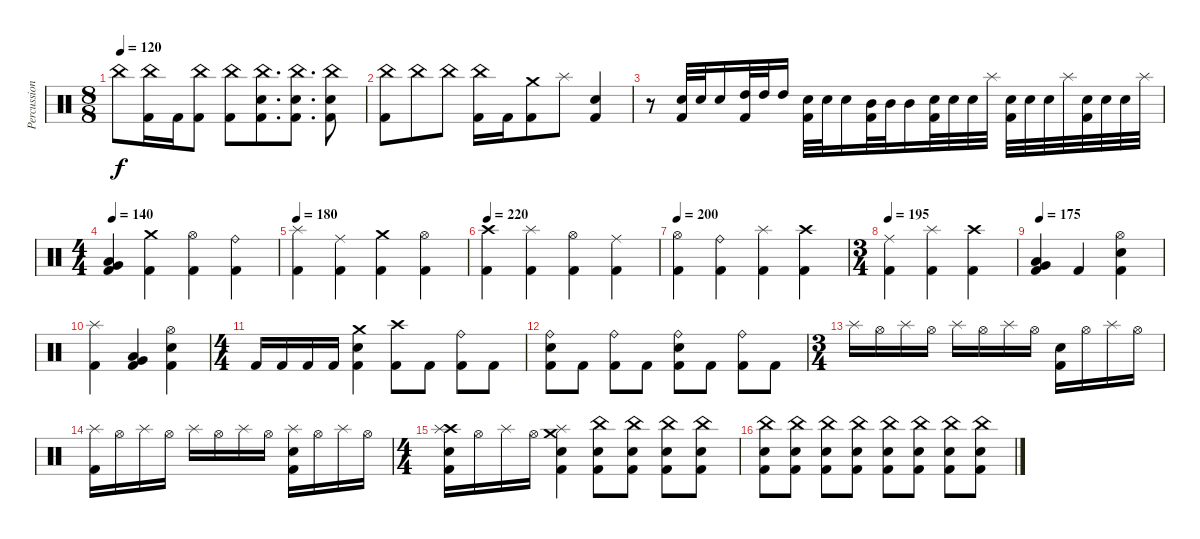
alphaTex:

\track ("Percussions" "Percussion") {instrument percussion}
\staff {score}
\articulation defaults
\ts (8 8)
\tempo 120
\clef neutral
\ks c "China (hit)".8{dy f}
("China (hit)" "Kick (hit) 2").16 "Kick (hit) 2".16 ("China (hit)" "Kick (hit) 2").8 ("China (hit)" "Kick (hit) 2").8 ("China (hit)" "Electric Snare (hit)" "Kick (hit) 2").8{d} ("China (hit)" "Electric Snare (hit)" "Kick (hit) 2").8{d} ("China (hit)" "Electric Snare (hit)" "Kick (hit) 2").8 |
("China (hit)" "Kick (hit) 2").8 "China (hit)".8 "China (hit)".8 ("China (hit)" "Kick (hit) 2").16 "Kick (hit) 2".16 ("Crash medium (hit)" "Kick (hit) 2").8 "Splash (hit)".8 ("Electric Snare (hit)" "Kick (hit) 2").4 |
r.8 ("Electric Snare (hit)" "Kick (hit) 2").32 "Electric Snare (hit)".32 "Electric Snare (hit)".16 ("High Tom (hit)" "Kick (hit) 2").32 "High Tom (hit)".32 "High Tom (hit)".16 ("Electric Snare (hit)" "Kick (hit) 2").32 "Electric Snare (hit)".32 "Electric Snare (hit)".16 ("Mid Tom (hit)" "Kick (hit) 2").32 "Mid Tom (hit)".32 "Mid Tom (hit)".16 ("Electric Snare (hit)" "Kick (hit) 2").32 "Electric Snare (hit)".32 "Electric Snare (hit)".32 "Splash (hit)".32 ("Electric Snare (hit)" "Kick (hit) 2").32 "Electric Snare (hit)".32 "Electric Snare (hit)".32 "Splash (hit)".32 ("Electric Snare (hit)" "Kick (hit) 2").32 "Electric Snare (hit)".32 "Electric Snare (hit)".32 "Splash (hit)".32 |
\ts (4 4)
\tempo 140
("Low Tom (hit)" "Very Low Tom (hit)" "Kick (hit) 2").4 ("Crash medium (hit)" "Kick (hit) 2").4 ("Hi-Hat (open)" "Kick (hit) 2").4 ("Ride (bell)" "Kick (hit) 2").4 |
\tempo 180
("Splash (hit)" "Kick (hit) 2").4 ("Ride (middle)" "Kick (hit) 2").4 ("Crash medium (hit)" "Kick (hit) 2").4 ("Hi-Hat (open)" "Kick (hit) 2").4 |
\tempo 220
("Crash high (hit)" "Kick (hit) 2").4 ("Splash (hit)" "Kick (hit) 2").4 ("Hi-Hat (open)" "Kick (hit) 2").4 ("Ride (middle)" "Kick (hit) 2").4 |
\tempo 200
("Hi-Hat (open)" "Kick (hit) 2").4 ("Ride (bell)" "Kick (hit) 2").4 ("Splash (hit)" "Kick (hit) 2").4 ("Crash high (hit)" "Kick (hit) 2").4 |
\ts (3 4)
\tempo 195
("Ride (middle)" "Kick (hit) 2").4 ("Splash (hit)" "Kick (hit) 2").4 ("Crash high (hit)" "Kick (hit) 2").4 |
\tempo 175
("Low Tom (hit)" "Very Low Tom (hit)" "Kick (hit) 2").4 "Kick (hit) 2".4 ("Hi-Hat (open)" "Electric Snare (hit)" "Kick (hit) 2").4 |
("Splash (hit)" "Kick (hit) 2").4 ("Low Tom (hit)" "Very Low Tom (hit)" "Kick (hit) 2").4 ("Hi-Hat (open)" "Electric Snare (hit)" "Kick (hit) 2").4 |
\ts (4 4)
"Kick (hit) 2".16 "Kick (hit) 2".16 "Kick (hit) 2".16 "Kick (hit) 2".16 ("Crash medium (hit)" "Electric Snare (hit)" "Kick (hit) 2").4 ("Crash high (hit)" "Kick (hit) 2").8 "Kick (hit) 2".8 ("Ride (bell)" "Kick (hit) 2").8 "Kick (hit) 2".8 |
("Ride (bell)" "Electric Snare (hit)" "Kick (hit) 2").8 "Kick (hit) 2".8 ("Ride (bell)" "Kick (hit) 2").8 "Kick (hit) 2".8 ("Ride (bell)" "Electric Snare (hit)" "Kick (hit) 2").8 "Kick (hit) 2".8 ("Ride (bell)" "Kick (hit) 2").8 "Kick (hit) 2".8 |
\ts (3 4)
"Splash (hit)".16 "Hi-Hat (open)".16 "Splash (hit)".16 "Hi-Hat (open)".16 "Splash (hit)".16 "Hi-Hat (open)".16 "Splash (hit)".16 "Hi-Hat (open)".16 ("Electric Snare (hit)" "Kick (hit) 2").16 "Hi-Hat (open)".16 "Splash (hit)".16 "Hi-Hat (open)".16 |
("Splash (hit)" "Kick (hit) 2").16 "Hi-Hat (open)".16 "Splash (hit)".16 "Hi-Hat (open)".16 "Splash (hit)".16 "Hi-Hat (open)".16 "Splash (hit)".16 "Hi-Hat (open)".16 ("Splash (hit)" "Electric Snare (hit)" "Kick (hit) 2").16 "Hi-Hat (open)".16 "Splash (hit)".16 "Hi-Hat (open)".16 |
\ts (4 4)
("Crash high (hit)" "Splash (hit)" "Electric Snare (hit)" "Kick (hit) 2").16 "Hi-Hat (open)".16 "Splash (hit)".16 "Hi-Hat (open)".16 ("Crash medium (hit)" "Splash (hit)" "Electric Snare (hit)" "Kick (hit) 2").4 ("China (hit)" "Electric Snare (hit)" "Kick (hit) 2").8 ("China (hit)" "Electric Snare (hit)" "Kick (hit) 2").8 ("China (hit)" "Electric Snare (hit)" "Kick (hit) 2").8 ("China (hit)" "Electric Snare (hit)" "Kick (hit) 2").8 |
("China (hit)" "Electric Snare (hit)" "Kick (hit) 2").8 ("China (hit)" "Electric Snare (hit)" "Kick (hit) 2").8 ("China (hit)" "Electric Snare (hit)" "Kick (hit) 2").8 ("China (hit)" "Electric Snare (hit)" "Kick (hit) 2").8 ("China (hit)" "Electric Snare (hit)" "Kick (hit) 2").8 ("China (hit)" "Electric Snare (hit)" "Kick (hit) 2").8 ("China (hit)" "Electric Snare (hit)" "Kick (hit) 2").8 ("China (hit)" "Electric Snare (hit)" "Kick (hit) 2").8
